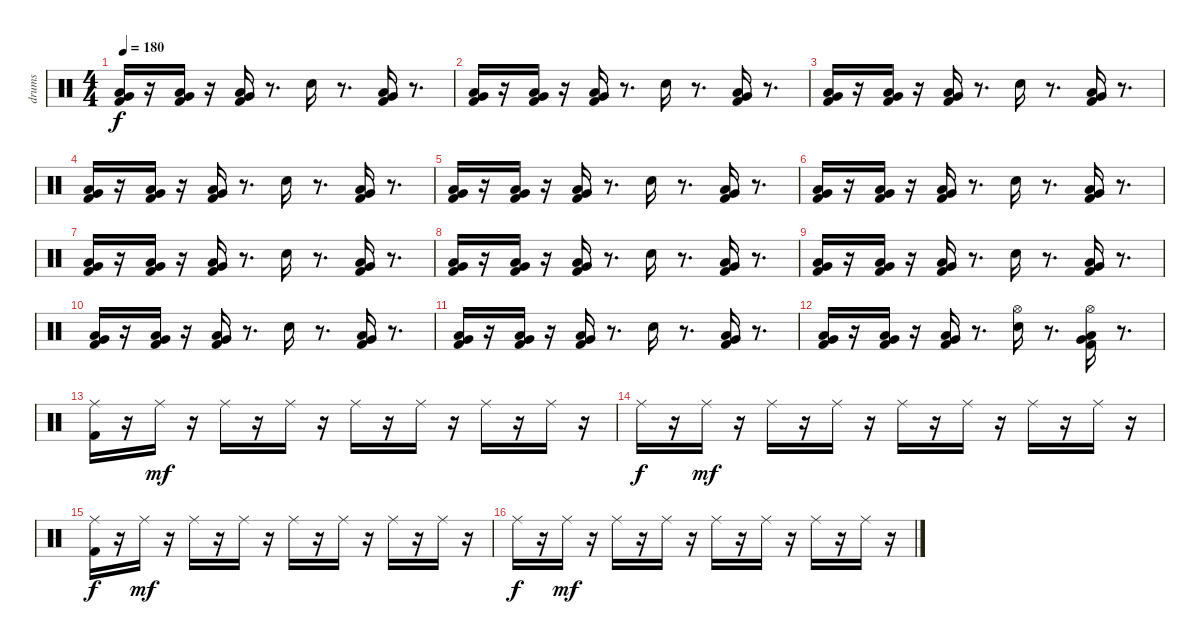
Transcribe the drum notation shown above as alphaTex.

\track ("drums" "drums") {instrument percussion}
\staff {score}
\articulation defaults
\ts (4 4)
\tempo 180
\clef neutral
\ks c
("Very Low Tom (hit)" "Low Floor Tom (hit)" "Kick (hit) 2").16{dy f} r.16 ("Low Tom (hit)" "Very Low Tom (hit)" "Kick (hit) 2").16 r.16 ("Low Floor Tom (hit)" "Very Low Tom (hit)" "Kick (hit) 2").16 r.8{d} "Electric Snare (hit)".16 r.8{d} ("Kick (hit) 2" "Very Low Tom (hit)" "Low Floor Tom (hit)").16 r.8{d} |
("Kick (hit) 2" "Low Floor Tom (hit)" "Very Low Tom (hit)").16 r.16 ("Kick (hit) 2" "Very Low Tom (hit)" "Low Tom (hit)").16 r.16 ("Kick (hit) 2" "Low Floor Tom (hit)" "Very Low Tom (hit)").16 r.8{d} "Electric Snare (hit)".16 r.8{d} ("Kick (hit) 2" "Very Low Tom (hit)" "Low Floor Tom (hit)").16 r.8{d} |
("Very Low Tom (hit)" "Low Floor Tom (hit)" "Kick (hit) 2").16 r.16 ("Low Tom (hit)" "Very Low Tom (hit)" "Kick (hit) 2").16 r.16 ("Low Floor Tom (hit)" "Very Low Tom (hit)" "Kick (hit) 2").16 r.8{d} "Electric Snare (hit)".16 r.8{d} ("Kick (hit) 2" "Very Low Tom (hit)" "Low Floor Tom (hit)").16 r.8{d} |
("Kick (hit) 2" "Low Floor Tom (hit)" "Very Low Tom (hit)").16 r.16 ("Kick (hit) 2" "Very Low Tom (hit)" "Low Tom (hit)").16 r.16 ("Kick (hit) 2" "Low Floor Tom (hit)" "Very Low Tom (hit)").16 r.8{d} "Electric Snare (hit)".16 r.8{d} ("Kick (hit) 2" "Very Low Tom (hit)" "Low Floor Tom (hit)").16 r.8{d} |
("Very Low Tom (hit)" "Low Floor Tom (hit)" "Kick (hit) 2").16 r.16 ("Low Tom (hit)" "Very Low Tom (hit)" "Kick (hit) 2").16 r.16 ("Low Floor Tom (hit)" "Very Low Tom (hit)" "Kick (hit) 2").16 r.8{d} "Electric Snare (hit)".16 r.8{d} ("Kick (hit) 2" "Very Low Tom (hit)" "Low Floor Tom (hit)").16 r.8{d} |
("Kick (hit) 2" "Low Floor Tom (hit)" "Very Low Tom (hit)").16 r.16 ("Kick (hit) 2" "Very Low Tom (hit)" "Low Tom (hit)").16 r.16 ("Kick (hit) 2" "Low Floor Tom (hit)" "Very Low Tom (hit)").16 r.8{d} "Electric Snare (hit)".16 r.8{d} ("Kick (hit) 2" "Very Low Tom (hit)" "Low Floor Tom (hit)").16 r.8{d} |
("Very Low Tom (hit)" "Low Floor Tom (hit)" "Kick (hit) 2").16 r.16 ("Low Tom (hit)" "Very Low Tom (hit)" "Kick (hit) 2").16 r.16 ("Low Floor Tom (hit)" "Very Low Tom (hit)" "Kick (hit) 2").16 r.8{d} "Electric Snare (hit)".16 r.8{d} ("Kick (hit) 2" "Very Low Tom (hit)" "Low Floor Tom (hit)").16 r.8{d} |
("Kick (hit) 2" "Low Floor Tom (hit)" "Very Low Tom (hit)").16 r.16 ("Kick (hit) 2" "Very Low Tom (hit)" "Low Tom (hit)").16 r.16 ("Kick (hit) 2" "Low Floor Tom (hit)" "Very Low Tom (hit)").16 r.8{d} "Electric Snare (hit)".16 r.8{d} ("Kick (hit) 2" "Very Low Tom (hit)" "Low Floor Tom (hit)").16 r.8{d} |
("Very Low Tom (hit)" "Low Floor Tom (hit)" "Kick (hit) 2").16 r.16 ("Low Tom (hit)" "Very Low Tom (hit)" "Kick (hit) 2").16 r.16 ("Low Floor Tom (hit)" "Very Low Tom (hit)" "Kick (hit) 2").16 r.8{d} "Electric Snare (hit)".16 r.8{d} ("Kick (hit) 2" "Very Low Tom (hit)" "Low Floor Tom (hit)").16 r.8{d} |
("Kick (hit) 2" "Low Floor Tom (hit)" "Very Low Tom (hit)").16 r.16 ("Kick (hit) 2" "Very Low Tom (hit)" "Low Tom (hit)").16 r.16 ("Kick (hit) 2" "Low Floor Tom (hit)" "Very Low Tom (hit)").16 r.8{d} "Electric Snare (hit)".16 r.8{d} ("Kick (hit) 2" "Very Low Tom (hit)" "Low Floor Tom (hit)").16 r.8{d} |
("Very Low Tom (hit)" "Low Floor Tom (hit)" "Kick (hit) 2").16 r.16 ("Low Tom (hit)" "Very Low Tom (hit)" "Kick (hit) 2").16 r.16 ("Low Floor Tom (hit)" "Very Low Tom (hit)" "Kick (hit) 2").16 r.8{d} "Electric Snare (hit)".16 r.8{d} ("Kick (hit) 2" "Very Low Tom (hit)" "Low Floor Tom (hit)").16 r.8{d} |
("Kick (hit) 2" "Low Floor Tom (hit)" "Very Low Tom (hit)").16 r.16 ("Kick (hit) 2" "Very Low Tom (hit)" "Low Tom (hit)").16 r.16 ("Kick (hit) 2" "Low Floor Tom (hit)" "Very Low Tom (hit)").16 r.8{d} ("Electric Snare (hit)" "Hi-Hat (open)").16 r.8{d} ("Kick (hit) 2" "Hi-Hat (open)" "Very Low Tom (hit)" "Low Floor Tom (hit)").16 r.8{d} |
("Ride (middle)" "Kick (hit) 2").16 r.16 "Ride (middle)".16{dy mf} r.16 "Ride (middle)".16 r.16 "Ride (middle)".16 r.16 "Ride (middle)".16 r.16 "Ride (middle)".16 r.16 "Ride (middle)".16 r.16 "Ride (middle)".16 r.16 |
"Ride (middle)".16{dy f} r.16 "Ride (middle)".16{dy mf} r.16 "Ride (middle)".16 r.16 "Ride (middle)".16 r.16 "Ride (middle)".16 r.16 "Ride (middle)".16 r.16 "Ride (middle)".16 r.16 "Ride (middle)".16 r.16 |
("Kick (hit) 2" "Ride (middle)").16{dy f} r.16 "Ride (middle)".16{dy mf} r.16 "Ride (middle)".16 r.16 "Ride (middle)".16 r.16 "Ride (middle)".16 r.16 "Ride (middle)".16 r.16 "Ride (middle)".16 r.16 "Ride (middle)".16 r.16 |
"Ride (middle)".16{dy f} r.16 "Ride (middle)".16{dy mf} r.16 "Ride (middle)".16 r.16 "Ride (middle)".16 r.16 "Ride (middle)".16 r.16 "Ride (middle)".16 r.16 "Ride (middle)".16 r.16 "Ride (middle)".16 r.16
